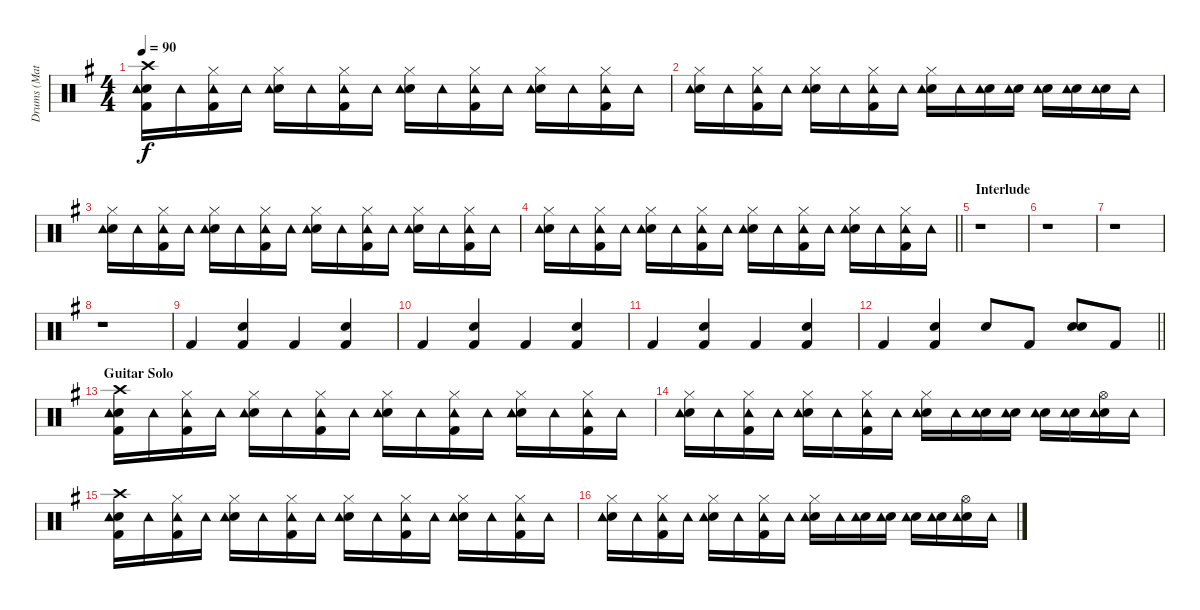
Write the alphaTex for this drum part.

\track ("Drums (Matt)" "Drums (Mat") {instrument percussion}
\staff {score}
\articulation defaults
\ts (4 4)
\tempo 90
\clef neutral
\ks g
("Crash high (hit)" "Snare (hit) 2" "Kick (hit) 2" "Tambourine (hit)").16{dy f} "Tambourine (hit)".16 ("Hi-Hat (closed)" "Kick (hit) 2" "Tambourine (hit)").16 "Tambourine (hit)".16 ("Hi-Hat (closed)" "Snare (hit) 2" "Tambourine (hit)").16 "Tambourine (hit)".16 ("Hi-Hat (closed)" "Kick (hit) 2" "Tambourine (hit)").16 "Tambourine (hit)".16 ("Hi-Hat (closed)" "Snare (hit) 2" "Tambourine (hit)").16 "Tambourine (hit)".16 ("Hi-Hat (closed)" "Kick (hit) 2" "Tambourine (hit)").16 "Tambourine (hit)".16 ("Hi-Hat (closed)" "Snare (hit) 2" "Tambourine (hit)").16 "Tambourine (hit)".16 ("Hi-Hat (closed)" "Kick (hit) 2" "Tambourine (hit)").16 "Tambourine (hit)".16 |
("Hi-Hat (closed)" "Snare (hit) 2" "Tambourine (hit)").16 "Tambourine (hit)".16 ("Hi-Hat (closed)" "Kick (hit) 2" "Tambourine (hit)").16 "Tambourine (hit)".16 ("Hi-Hat (closed)" "Snare (hit) 2" "Tambourine (hit)").16 "Tambourine (hit)".16 ("Hi-Hat (closed)" "Kick (hit) 2" "Tambourine (hit)").16 "Tambourine (hit)".16 ("Hi-Hat (closed)" "Snare (hit) 2" "Tambourine (hit)").16 "Tambourine (hit)".16 ("Snare (hit) 2" "Tambourine (hit)").16 ("Snare (hit) 2" "Tambourine (hit)").16 ("Snare (hit) 2" "Tambourine (hit)").16 ("Snare (hit) 2" "Tambourine (hit)").16 ("Snare (hit) 2" "Tambourine (hit)").16 "Tambourine (hit)".16 |
("Hi-Hat (closed)" "Snare (hit) 2" "Tambourine (hit)").16 "Tambourine (hit)".16 ("Hi-Hat (closed)" "Kick (hit) 2" "Tambourine (hit)").16 "Tambourine (hit)".16 ("Hi-Hat (closed)" "Snare (hit) 2" "Tambourine (hit)").16 "Tambourine (hit)".16 ("Hi-Hat (closed)" "Kick (hit) 2" "Tambourine (hit)").16 "Tambourine (hit)".16 ("Hi-Hat (closed)" "Snare (hit) 2" "Tambourine (hit)").16 "Tambourine (hit)".16 ("Hi-Hat (closed)" "Kick (hit) 2" "Tambourine (hit)").16 "Tambourine (hit)".16 ("Hi-Hat (closed)" "Snare (hit) 2" "Tambourine (hit)").16 "Tambourine (hit)".16 ("Hi-Hat (closed)" "Kick (hit) 2" "Tambourine (hit)").16 "Tambourine (hit)".16 |
\barLineRight lightlight
("Hi-Hat (closed)" "Snare (hit) 2" "Tambourine (hit)").16 "Tambourine (hit)".16 ("Hi-Hat (closed)" "Kick (hit) 2" "Tambourine (hit)").16 "Tambourine (hit)".16 ("Hi-Hat (closed)" "Snare (hit) 2" "Tambourine (hit)").16 "Tambourine (hit)".16 ("Hi-Hat (closed)" "Kick (hit) 2" "Tambourine (hit)").16 "Tambourine (hit)".16 ("Hi-Hat (closed)" "Snare (hit) 2" "Tambourine (hit)").16 "Tambourine (hit)".16 ("Hi-Hat (closed)" "Kick (hit) 2" "Tambourine (hit)").16 "Tambourine (hit)".16 ("Hi-Hat (closed)" "Snare (hit) 2" "Tambourine (hit)").16 "Tambourine (hit)".16 ("Hi-Hat (closed)" "Kick (hit) 2" "Tambourine (hit)").16 "Tambourine (hit)".16 |
\section ("" "Interlude")
r.1 |
r.1 |
r.1 |
r.1 |
"Kick (hit) 2".4 ("Kick (hit) 2" "Hand Clap (hit)").4 "Kick (hit) 2".4 ("Kick (hit) 2" "Hand Clap (hit)").4 |
"Kick (hit) 2".4 ("Kick (hit) 2" "Hand Clap (hit)").4 "Kick (hit) 2".4 ("Kick (hit) 2" "Hand Clap (hit)").4 |
"Kick (hit) 2".4 ("Kick (hit) 2" "Hand Clap (hit)").4 "Kick (hit) 2".4 ("Kick (hit) 2" "Hand Clap (hit)").4 |
\barLineRight lightlight "Kick (hit) 2".4
("Kick (hit) 2" "Hand Clap (hit)").4 "Snare (hit) 2".8 "Kick (hit) 2".8 ("Snare (hit) 2" "Hand Clap (hit)").8 "Kick (hit) 2".8 |
\section ("" "Guitar Solo")
("Crash high (hit)" "Snare (hit) 2" "Kick (hit) 2" "Tambourine (hit)").16 "Tambourine (hit)".16 ("Hi-Hat (closed)" "Kick (hit) 2" "Tambourine (hit)").16 "Tambourine (hit)".16 ("Hi-Hat (closed)" "Snare (hit) 2" "Tambourine (hit)").16 "Tambourine (hit)".16 ("Hi-Hat (closed)" "Kick (hit) 2" "Tambourine (hit)").16 "Tambourine (hit)".16 ("Hi-Hat (closed)" "Snare (hit) 2" "Tambourine (hit)").16 "Tambourine (hit)".16 ("Hi-Hat (closed)" "Kick (hit) 2" "Tambourine (hit)").16 "Tambourine (hit)".16 ("Hi-Hat (closed)" "Snare (hit) 2" "Tambourine (hit)").16 "Tambourine (hit)".16 ("Hi-Hat (closed)" "Kick (hit) 2" "Tambourine (hit)").16 "Tambourine (hit)".16 |
("Hi-Hat (closed)" "Snare (hit) 2" "Tambourine (hit)").16 "Tambourine (hit)".16 ("Hi-Hat (closed)" "Kick (hit) 2" "Tambourine (hit)").16 "Tambourine (hit)".16 ("Hi-Hat (closed)" "Snare (hit) 2" "Tambourine (hit)").16 "Tambourine (hit)".16 ("Hi-Hat (closed)" "Kick (hit) 2" "Tambourine (hit)").16 "Tambourine (hit)".16 ("Hi-Hat (closed)" "Snare (hit) 2" "Tambourine (hit)").16 "Tambourine (hit)".16 ("Snare (hit) 2" "Tambourine (hit)").16 ("Snare (hit) 2" "Tambourine (hit)").16 ("Snare (hit) 2" "Tambourine (hit)").16 ("Snare (hit) 2" "Tambourine (hit)").16 ("Hi-Hat (open)" "Snare (hit) 2" "Tambourine (hit)").16 "Tambourine (hit)".16 |
("Crash high (hit)" "Snare (hit) 2" "Kick (hit) 2" "Tambourine (hit)").16 "Tambourine (hit)".16 ("Hi-Hat (closed)" "Kick (hit) 2" "Tambourine (hit)").16 "Tambourine (hit)".16 ("Hi-Hat (closed)" "Snare (hit) 2" "Tambourine (hit)").16 "Tambourine (hit)".16 ("Hi-Hat (closed)" "Kick (hit) 2" "Tambourine (hit)").16 "Tambourine (hit)".16 ("Hi-Hat (closed)" "Snare (hit) 2" "Tambourine (hit)").16 "Tambourine (hit)".16 ("Hi-Hat (closed)" "Kick (hit) 2" "Tambourine (hit)").16 "Tambourine (hit)".16 ("Hi-Hat (closed)" "Snare (hit) 2" "Tambourine (hit)").16 "Tambourine (hit)".16 ("Hi-Hat (closed)" "Kick (hit) 2" "Tambourine (hit)").16 "Tambourine (hit)".16 |
("Hi-Hat (closed)" "Snare (hit) 2" "Tambourine (hit)").16 "Tambourine (hit)".16 ("Hi-Hat (closed)" "Kick (hit) 2" "Tambourine (hit)").16 "Tambourine (hit)".16 ("Hi-Hat (closed)" "Snare (hit) 2" "Tambourine (hit)").16 "Tambourine (hit)".16 ("Hi-Hat (closed)" "Kick (hit) 2" "Tambourine (hit)").16 "Tambourine (hit)".16 ("Hi-Hat (closed)" "Snare (hit) 2" "Tambourine (hit)").16 "Tambourine (hit)".16 ("Snare (hit) 2" "Tambourine (hit)").16 ("Snare (hit) 2" "Tambourine (hit)").16 ("Snare (hit) 2" "Tambourine (hit)").16 ("Snare (hit) 2" "Tambourine (hit)").16 ("Hi-Hat (open)" "Snare (hit) 2" "Tambourine (hit)").16 "Tambourine (hit)".16
